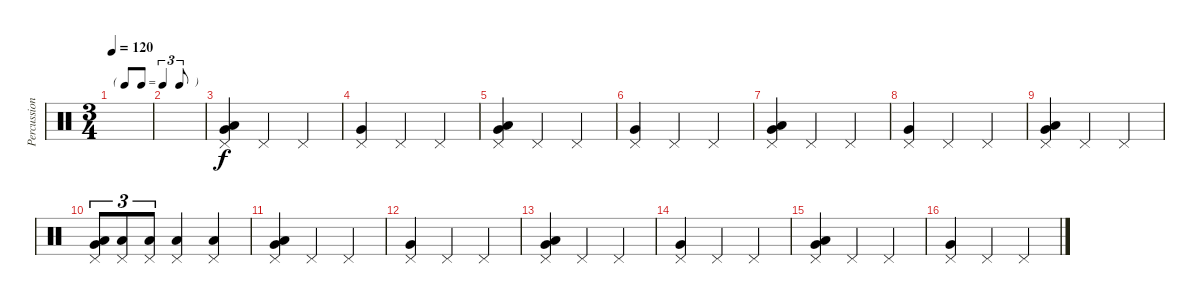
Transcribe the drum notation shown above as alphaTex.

\track ("Percussions" "Percussion") {instrument percussion}
\staff {score}
\articulation defaults
\ts (3 4)
\tf triplet8th
\tempo 120
\clef neutral
\ks c
|
|
("Pedal Hi-Hat (hit)" "Low Tom (hit)" "Very Low Tom (hit)").4 "Pedal Hi-Hat (hit)".4 "Pedal Hi-Hat (hit)".4 |
("Pedal Hi-Hat (hit)" "Very Low Tom (hit)").4 "Pedal Hi-Hat (hit)".4 "Pedal Hi-Hat (hit)".4 |
("Pedal Hi-Hat (hit)" "Low Tom (hit)" "Very Low Tom (hit)").4 "Pedal Hi-Hat (hit)".4 "Pedal Hi-Hat (hit)".4 |
("Pedal Hi-Hat (hit)" "Very Low Tom (hit)").4 "Pedal Hi-Hat (hit)".4 "Pedal Hi-Hat (hit)".4 |
("Pedal Hi-Hat (hit)" "Low Tom (hit)" "Very Low Tom (hit)").4 "Pedal Hi-Hat (hit)".4 "Pedal Hi-Hat (hit)".4 |
("Pedal Hi-Hat (hit)" "Very Low Tom (hit)").4 "Pedal Hi-Hat (hit)".4 "Pedal Hi-Hat (hit)".4 |
("Pedal Hi-Hat (hit)" "Low Tom (hit)" "Very Low Tom (hit)").4 "Pedal Hi-Hat (hit)".4 "Pedal Hi-Hat (hit)".4 |
("Pedal Hi-Hat (hit)" "Low Tom (hit)" "Very Low Tom (hit)").8{tu (3 2)} ("Pedal Hi-Hat (hit)" "Low Tom (hit)").8{tu (3 2)} ("Pedal Hi-Hat (hit)" "Low Tom (hit)").8{tu (3 2)} ("Pedal Hi-Hat (hit)" "Low Tom (hit)").4 ("Pedal Hi-Hat (hit)" "Low Tom (hit)").4 |
("Pedal Hi-Hat (hit)" "Low Tom (hit)" "Very Low Tom (hit)").4 "Pedal Hi-Hat (hit)".4 "Pedal Hi-Hat (hit)".4 |
("Pedal Hi-Hat (hit)" "Very Low Tom (hit)").4 "Pedal Hi-Hat (hit)".4 "Pedal Hi-Hat (hit)".4 |
("Pedal Hi-Hat (hit)" "Low Tom (hit)" "Very Low Tom (hit)").4 "Pedal Hi-Hat (hit)".4 "Pedal Hi-Hat (hit)".4 |
("Pedal Hi-Hat (hit)" "Very Low Tom (hit)").4 "Pedal Hi-Hat (hit)".4 "Pedal Hi-Hat (hit)".4 |
("Pedal Hi-Hat (hit)" "Low Tom (hit)" "Very Low Tom (hit)").4 "Pedal Hi-Hat (hit)".4 "Pedal Hi-Hat (hit)".4 |
("Pedal Hi-Hat (hit)" "Very Low Tom (hit)").4 "Pedal Hi-Hat (hit)".4 "Pedal Hi-Hat (hit)".4
